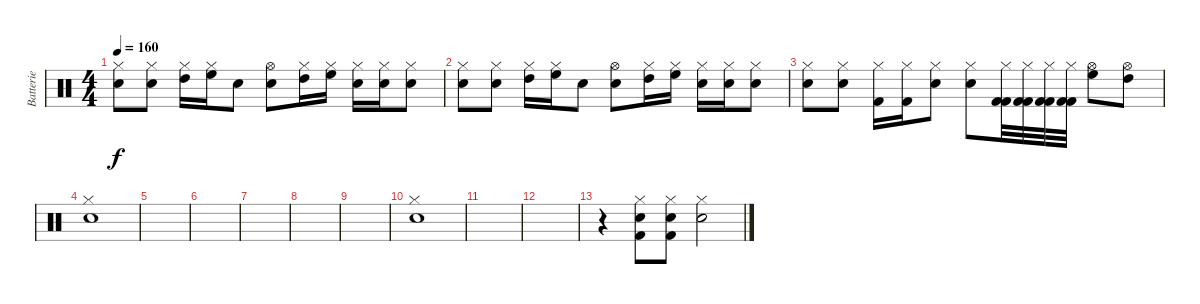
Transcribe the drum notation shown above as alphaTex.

\track ("Batterie" "Batterie") {instrument percussion}
\staff {score}
\articulation defaults
\ts (4 4)
\tempo 160
\clef neutral
\ks c
("Hi-Hat (closed)" "Snare (hit) 2").8{dy f} ("Hi-Hat (closed)" "Snare (hit) 2").8 ("Hi-Hat (closed)" "High Tom (hit)").16 ("Hi-Hat (closed)" "High Floor Tom (hit)").16 "Snare (hit) 2".8 ("Hi-Hat (open)" "Snare (hit) 2").8 ("Hi-Hat (closed)" "High Tom (hit)").16 ("Hi-Hat (closed)" "High Floor Tom (hit)").16 ("Hi-Hat (closed)" "Snare (hit) 2").16 ("Hi-Hat (closed)" "Snare (hit) 2").16 ("Hi-Hat (closed)" "Snare (hit) 2").8 |
("Hi-Hat (closed)" "Snare (hit) 2").8 ("Hi-Hat (closed)" "Snare (hit) 2").8 ("Hi-Hat (closed)" "High Tom (hit)").16 ("Hi-Hat (closed)" "High Floor Tom (hit)").16 "Snare (hit) 2".8 ("Hi-Hat (open)" "Snare (hit) 2").8 ("Hi-Hat (closed)" "High Tom (hit)").16 ("Hi-Hat (closed)" "High Floor Tom (hit)").16 ("Hi-Hat (closed)" "Snare (hit) 2").16 ("Hi-Hat (closed)" "Snare (hit) 2").16 ("Hi-Hat (closed)" "Snare (hit) 2").8 |
("Hi-Hat (closed)" "Snare (hit) 2").8 ("Hi-Hat (closed)" "Snare (hit) 2").8 ("Hi-Hat (closed)" "Kick (hit) 2").16 ("Hi-Hat (closed)" "Kick (hit) 2").16 ("Hi-Hat (closed)" "Snare (hit) 2").8 ("Hi-Hat (closed)" "Snare (hit) 2").8 ("Kick (hit) 2" "Hi-Hat (closed)" "Kick (hit) 2").32 ("Kick (hit) 2" "Hi-Hat (closed)" "Kick (hit) 2").32 ("Kick (hit) 2" "Hi-Hat (closed)" "Kick (hit) 2").32 ("Kick (hit) 2" "Hi-Hat (closed)" "Kick (hit) 2").32 ("Hi-Hat (open)" "High Floor Tom (hit)").8 ("Hi-Hat (open)" "High Tom (hit)").8 |
("Hi-Hat (closed)" "Snare (hit) 2").1 |
|
|
|
|
|
("Hi-Hat (closed)" "Snare (hit) 2").1 |
|
|
r.4 ("Hi-Hat (closed)" "Kick (hit) 2" "Snare (hit) 2").8 ("Hi-Hat (closed)" "Kick (hit) 2" "Snare (hit) 2").8 ("Hi-Hat (closed)" "Snare (hit) 2").2
